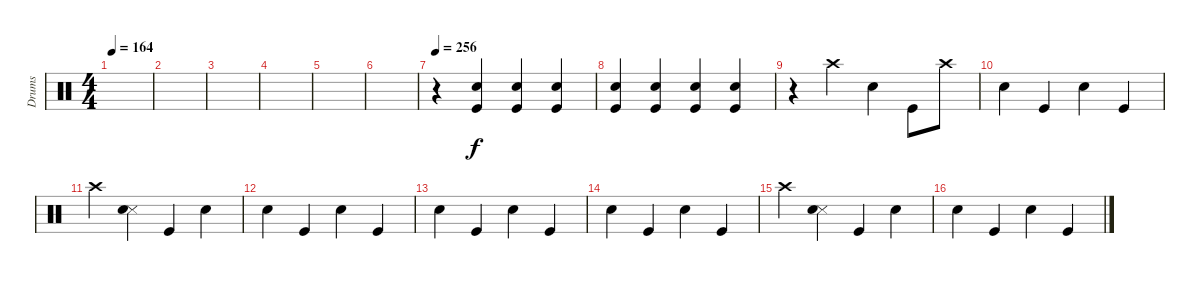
\track ("Drums" "Drums") {instrument percussion}
\staff {score}
\articulation defaults
\ts (4 4)
\tempo 164
\clef neutral
\ks c
|
|
|
|
|
|
\tempo 256
r.4 ("Snare (hit) 2" "Kick (hit)").4 ("Snare (hit) 2" "Kick (hit)").4 ("Snare (hit) 2" "Kick (hit)").4 |
("Snare (hit) 2" "Kick (hit)").4 ("Snare (hit) 2" "Kick (hit)").4 ("Snare (hit) 2" "Kick (hit)").4 ("Snare (hit) 2" "Kick (hit)").4 |
r.4 "Crash high (hit)".4 "Snare (hit) 2".4 "Kick (hit)".8 "Crash high (hit)".8 |
"Snare (hit) 2".4 "Kick (hit)".4 "Snare (hit) 2".4 "Kick (hit)".4 |
"Crash high (hit)".4 ("Snare (side stick) 3" "Snare (hit) 2").4 "Kick (hit)".4 "Snare (hit) 2".4 |
"Snare (hit) 2".4 "Kick (hit)".4 "Snare (hit) 2".4 "Kick (hit)".4 |
"Snare (hit) 2".4 "Kick (hit)".4 "Snare (hit) 2".4 "Kick (hit)".4 |
"Snare (hit) 2".4 "Kick (hit)".4 "Snare (hit) 2".4 "Kick (hit)".4 |
"Crash high (hit)".4 ("Snare (side stick) 3" "Snare (hit) 2").4 "Kick (hit)".4 "Snare (hit) 2".4 |
"Snare (hit) 2".4 "Kick (hit)".4 "Snare (hit) 2".4 "Kick (hit)".4
